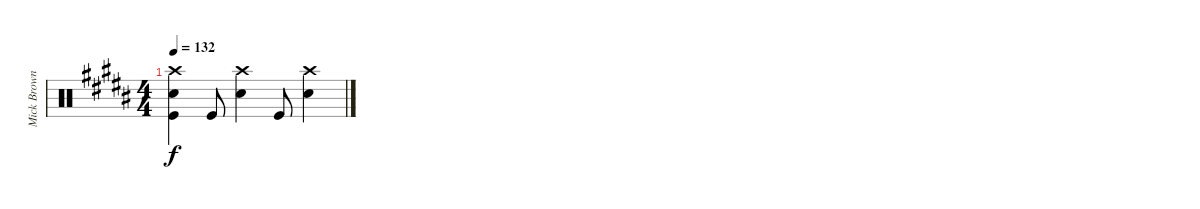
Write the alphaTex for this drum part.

\track ("Mick Brown" "Mick Brown") {instrument percussion}
\staff {score}
\articulation defaults
\ts (4 4)
\tempo 132
\clef neutral
\ks g#minor
("Kick (hit)" "Snare (hit) 2" "Crash high (hit)").4{dy f} "Kick (hit)".8 ("Snare (hit) 2" "Crash high (hit)").4 "Kick (hit)".8 ("Snare (hit) 2" "Crash high (hit)").4
